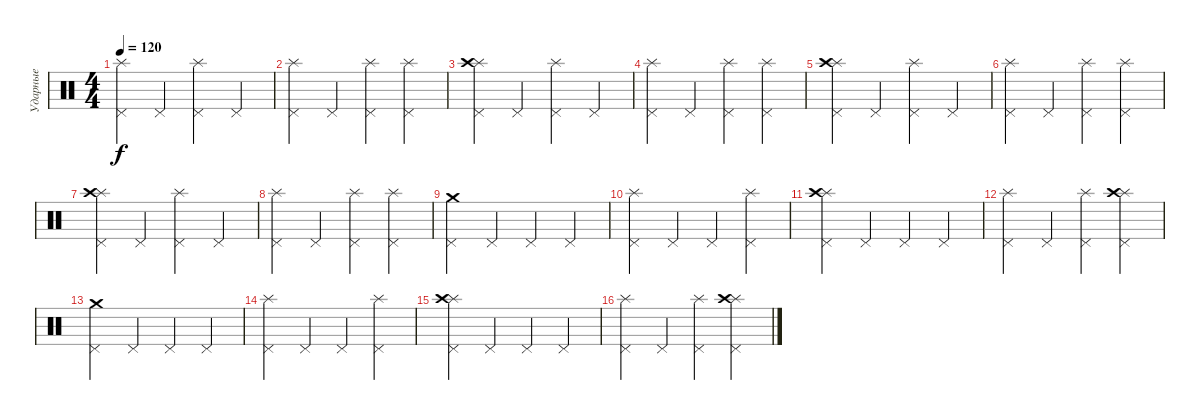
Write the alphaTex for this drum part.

\track ("Ударные" "Ударные") {instrument percussion}
\staff {score}
\articulation defaults
\ts (4 4)
\tempo 120
\clef neutral
\ks c
("Pedal Hi-Hat (hit)" "Splash (hit)").4{dy f} "Pedal Hi-Hat (hit)".4 ("Pedal Hi-Hat (hit)" "Splash (hit)").4 "Pedal Hi-Hat (hit)".4 |
("Pedal Hi-Hat (hit)" "Splash (hit)").4 "Pedal Hi-Hat (hit)".4 ("Pedal Hi-Hat (hit)" "Splash (hit)").4 ("Pedal Hi-Hat (hit)" "Splash (hit)").4 |
("Pedal Hi-Hat (hit)" "Splash (hit)" "Crash high (hit)").4 "Pedal Hi-Hat (hit)".4 ("Pedal Hi-Hat (hit)" "Splash (hit)").4 "Pedal Hi-Hat (hit)".4 |
("Pedal Hi-Hat (hit)" "Splash (hit)").4 "Pedal Hi-Hat (hit)".4 ("Pedal Hi-Hat (hit)" "Splash (hit)").4 ("Pedal Hi-Hat (hit)" "Splash (hit)").4 |
("Pedal Hi-Hat (hit)" "Splash (hit)" "Crash high (hit)").4 "Pedal Hi-Hat (hit)".4 ("Pedal Hi-Hat (hit)" "Splash (hit)").4 "Pedal Hi-Hat (hit)".4 |
("Pedal Hi-Hat (hit)" "Splash (hit)").4 "Pedal Hi-Hat (hit)".4 ("Pedal Hi-Hat (hit)" "Splash (hit)").4 ("Pedal Hi-Hat (hit)" "Splash (hit)").4 |
("Pedal Hi-Hat (hit)" "Splash (hit)" "Crash high (hit)").4 "Pedal Hi-Hat (hit)".4 ("Pedal Hi-Hat (hit)" "Splash (hit)").4 "Pedal Hi-Hat (hit)".4 |
("Pedal Hi-Hat (hit)" "Splash (hit)").4 "Pedal Hi-Hat (hit)".4 ("Pedal Hi-Hat (hit)" "Splash (hit)").4 ("Pedal Hi-Hat (hit)" "Splash (hit)").4 |
("Pedal Hi-Hat (hit)" "Crash medium (hit)").4 "Pedal Hi-Hat (hit)".4 "Pedal Hi-Hat (hit)".4 "Pedal Hi-Hat (hit)".4 |
("Pedal Hi-Hat (hit)" "Splash (hit)").4 "Pedal Hi-Hat (hit)".4 "Pedal Hi-Hat (hit)".4 ("Pedal Hi-Hat (hit)" "Splash (hit)").4 |
("Pedal Hi-Hat (hit)" "Splash (hit)" "Crash high (hit)").4 "Pedal Hi-Hat (hit)".4 "Pedal Hi-Hat (hit)".4 "Pedal Hi-Hat (hit)".4 |
("Pedal Hi-Hat (hit)" "Splash (hit)").4 "Pedal Hi-Hat (hit)".4 ("Pedal Hi-Hat (hit)" "Splash (hit)").4 ("Pedal Hi-Hat (hit)" "Splash (hit)" "Crash high (hit)").4 |
("Pedal Hi-Hat (hit)" "Crash medium (hit)").4 "Pedal Hi-Hat (hit)".4 "Pedal Hi-Hat (hit)".4 "Pedal Hi-Hat (hit)".4 |
("Pedal Hi-Hat (hit)" "Splash (hit)").4 "Pedal Hi-Hat (hit)".4 "Pedal Hi-Hat (hit)".4 ("Pedal Hi-Hat (hit)" "Splash (hit)").4 |
("Pedal Hi-Hat (hit)" "Splash (hit)" "Crash high (hit)").4 "Pedal Hi-Hat (hit)".4 "Pedal Hi-Hat (hit)".4 "Pedal Hi-Hat (hit)".4 |
("Pedal Hi-Hat (hit)" "Splash (hit)").4 "Pedal Hi-Hat (hit)".4 ("Pedal Hi-Hat (hit)" "Splash (hit)").4 ("Pedal Hi-Hat (hit)" "Splash (hit)" "Crash high (hit)").4
